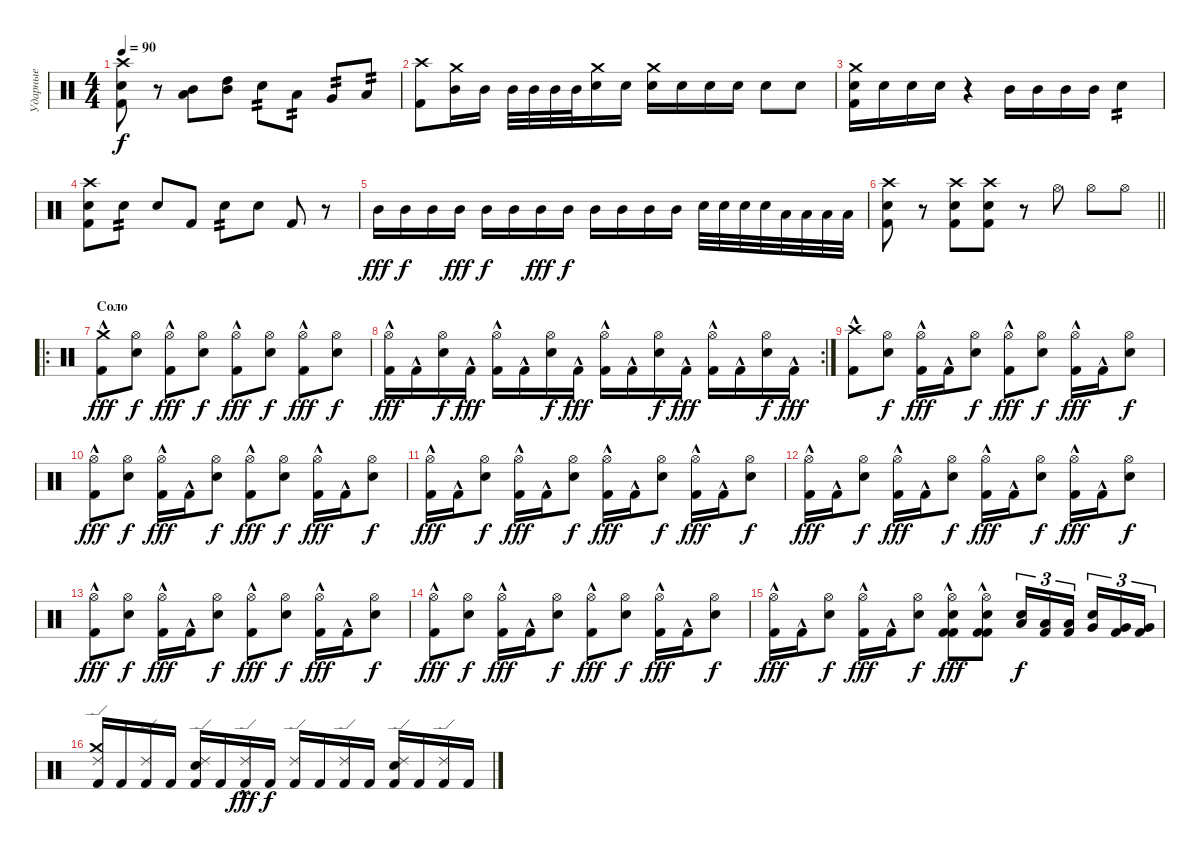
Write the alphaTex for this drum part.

\track ("Ударные" "Ударные") {instrument percussion}
\staff {score}
\articulation defaults
\ts (4 4)
\tempo 90
\clef neutral
\ks c
("Kick (hit) 2" "Snare (hit) 2" "Crash high (hit)").8{dy f} r.8 ("Mid Tom (hit)" "Low Tom (hit)").8 ("High Tom (hit)" "Mid Tom (hit)").8 "Electric Snare (hit)".8{tp 2} "Low Floor Tom (hit)".8{tp 2} "Very Low Tom (hit)".8{tp 2} "Low Tom (hit)".8{tp 2} |
("Crash high (hit)" "Kick (hit) 2").8 ("Crash medium (hit)" "Mid Tom (hit)").16 "Mid Tom (hit)".16 "Mid Tom (hit)".32 "Mid Tom (hit)".32 "Mid Tom (hit)".32 "Mid Tom (hit)".32 ("Crash medium (hit)" "Snare (hit) 2").16 "Snare (hit) 2".16 ("Crash medium (hit)" "Snare (hit) 2").16 "Snare (hit) 2".16 "Snare (hit) 2".16 "Snare (hit) 2".16 "Snare (hit) 2".8 "Snare (hit) 2".8 |
("Crash medium (hit)" "Snare (hit) 2" "Kick (hit) 2").16 "Snare (hit) 2".16 "Snare (hit) 2".16 "Snare (hit) 2".16 r.4 "Mid Tom (hit)".16 "Mid Tom (hit)".16 "Mid Tom (hit)".16 "Mid Tom (hit)".16 "Electric Snare (hit)".4{tp 2} |
("Kick (hit) 2" "Snare (hit) 2" "Crash high (hit)").8 "Electric Snare (hit)".8{tp 2} "Electric Snare (hit)".8 "Kick (hit) 2".8 "Electric Snare (hit)".8{tp 2} "Electric Snare (hit)".8 "Kick (hit) 2".8 r.8 |
"Mid Tom (hit)".16{dy fff} "Mid Tom (hit)".16{dy f} "Mid Tom (hit)".16 "Mid Tom (hit)".16{dy fff} "Mid Tom (hit)".16{dy f} "Mid Tom (hit)".16 "Mid Tom (hit)".16{dy fff} "Mid Tom (hit)".16{dy f} "Mid Tom (hit)".16 "Mid Tom (hit)".16 "Mid Tom (hit)".16 "Mid Tom (hit)".16 "Snare (hit) 2".32 "Snare (hit) 2".32 "Snare (hit) 2".32 "Snare (hit) 2".32 "Low Tom (hit)".32 "Low Tom (hit)".32 "Low Tom (hit)".32 "Low Tom (hit)".32 |
\barLineRight lightlight
("Kick (hit) 2" "Snare (hit) 2" "Crash high (hit)").8 r.8 ("Kick (hit) 2" "Snare (hit) 2" "Crash high (hit)").8 ("Kick (hit) 2" "Snare (hit) 2" "Crash high (hit)").8 r.8 "Hi-Hat (open)".8 "Hi-Hat (open)".8 "Hi-Hat (open)".8 |
\ro
\section ("" "Соло")
("Crash medium (hit)" "Kick (hit) 2"{hac}).8{dy fff} ("Hi-Hat (open)" "Snare (hit) 2").8{dy f} ("Hi-Hat (open)" "Kick (hit) 2"{hac}).8{dy fff} ("Hi-Hat (open)" "Snare (hit) 2").8{dy f} ("Hi-Hat (open)" "Kick (hit) 2"{hac}).8{dy fff} ("Hi-Hat (open)" "Snare (hit) 2").8{dy f} ("Hi-Hat (open)" "Kick (hit) 2"{hac}).8{dy fff} ("Hi-Hat (open)" "Snare (hit) 2").8{dy f} |
\rc 2
("Hi-Hat (open)" "Kick (hit) 2"{hac}).16{dy fff} "Kick (hit) 2"{hac}.16 ("Hi-Hat (open)" "Snare (hit) 2").16{dy f} "Kick (hit) 2"{hac}.16{dy fff} ("Hi-Hat (open)" "Kick (hit) 2"{hac}).16 "Kick (hit) 2"{hac}.16 ("Hi-Hat (open)" "Snare (hit) 2").16{dy f} "Kick (hit) 2"{hac}.16{dy fff} ("Hi-Hat (open)" "Kick (hit) 2"{hac}).16 "Kick (hit) 2"{hac}.16 ("Hi-Hat (open)" "Snare (hit) 2").16{dy f} "Kick (hit) 2"{hac}.16{dy fff} ("Hi-Hat (open)" "Kick (hit) 2"{hac}).16 "Kick (hit) 2"{hac}.16 ("Hi-Hat (open)" "Snare (hit) 2").16{dy f} "Kick (hit) 2"{hac}.16{dy fff} |
("Crash high (hit)" "Kick (hit) 2"{hac}).8 ("Hi-Hat (open)" "Snare (hit) 2").8{dy f} ("Hi-Hat (open)" "Kick (hit) 2"{hac}).16{dy fff} "Kick (hit) 2"{hac}.16 ("Hi-Hat (open)" "Snare (hit) 2").8{dy f} ("Hi-Hat (open)" "Kick (hit) 2"{hac}).8{dy fff} ("Hi-Hat (open)" "Snare (hit) 2").8{dy f} ("Hi-Hat (open)" "Kick (hit) 2"{hac}).16{dy fff} "Kick (hit) 2"{hac}.16 ("Hi-Hat (open)" "Snare (hit) 2").8{dy f} |
("Hi-Hat (open)" "Kick (hit) 2"{hac}).8{dy fff} ("Hi-Hat (open)" "Snare (hit) 2").8{dy f} ("Hi-Hat (open)" "Kick (hit) 2"{hac}).16{dy fff} "Kick (hit) 2"{hac}.16 ("Hi-Hat (open)" "Snare (hit) 2").8{dy f} ("Hi-Hat (open)" "Kick (hit) 2"{hac}).8{dy fff} ("Hi-Hat (open)" "Snare (hit) 2").8{dy f} ("Hi-Hat (open)" "Kick (hit) 2"{hac}).16{dy fff} "Kick (hit) 2"{hac}.16 ("Hi-Hat (open)" "Snare (hit) 2").8{dy f} |
("Hi-Hat (open)" "Kick (hit) 2"{hac}).16{dy fff} "Kick (hit) 2"{hac}.16 ("Hi-Hat (open)" "Snare (hit) 2").8{dy f} ("Hi-Hat (open)" "Kick (hit) 2"{hac}).16{dy fff} "Kick (hit) 2"{hac}.16 ("Hi-Hat (open)" "Snare (hit) 2").8{dy f} ("Hi-Hat (open)" "Kick (hit) 2"{hac}).16{dy fff} "Kick (hit) 2"{hac}.16 ("Hi-Hat (open)" "Snare (hit) 2").8{dy f} ("Hi-Hat (open)" "Kick (hit) 2"{hac}).16{dy fff} "Kick (hit) 2"{hac}.16 ("Hi-Hat (open)" "Snare (hit) 2").8{dy f} |
("Hi-Hat (open)" "Kick (hit) 2"{hac}).16{dy fff} "Kick (hit) 2"{hac}.16 ("Hi-Hat (open)" "Snare (hit) 2").8{dy f} ("Hi-Hat (open)" "Kick (hit) 2"{hac}).16{dy fff} "Kick (hit) 2"{hac}.16 ("Hi-Hat (open)" "Snare (hit) 2").8{dy f} ("Hi-Hat (open)" "Kick (hit) 2"{hac}).16{dy fff} "Kick (hit) 2"{hac}.16 ("Hi-Hat (open)" "Snare (hit) 2").8{dy f} ("Hi-Hat (open)" "Kick (hit) 2"{hac}).16{dy fff} "Kick (hit) 2"{hac}.16 ("Hi-Hat (open)" "Snare (hit) 2").8{dy f} |
("Hi-Hat (open)" "Kick (hit) 2"{hac}).8{dy fff} ("Hi-Hat (open)" "Snare (hit) 2").8{dy f} ("Hi-Hat (open)" "Kick (hit) 2"{hac}).16{dy fff} "Kick (hit) 2"{hac}.16 ("Hi-Hat (open)" "Snare (hit) 2").8{dy f} ("Hi-Hat (open)" "Kick (hit) 2"{hac}).8{dy fff} ("Hi-Hat (open)" "Snare (hit) 2").8{dy f} ("Hi-Hat (open)" "Kick (hit) 2"{hac}).16{dy fff} "Kick (hit) 2"{hac}.16 ("Hi-Hat (open)" "Snare (hit) 2").8{dy f} |
("Hi-Hat (open)" "Kick (hit) 2"{hac}).8{dy fff} ("Hi-Hat (open)" "Snare (hit) 2").8{dy f} ("Hi-Hat (open)" "Kick (hit) 2"{hac}).16{dy fff} "Kick (hit) 2"{hac}.16 ("Hi-Hat (open)" "Snare (hit) 2").8{dy f} ("Hi-Hat (open)" "Kick (hit) 2"{hac}).8{dy fff} ("Hi-Hat (open)" "Snare (hit) 2").8{dy f} ("Hi-Hat (open)" "Kick (hit) 2"{hac}).16{dy fff} "Kick (hit) 2"{hac}.16 ("Hi-Hat (open)" "Snare (hit) 2").8{dy f} |
("Hi-Hat (open)" "Kick (hit) 2"{hac}).16{dy fff} "Kick (hit) 2"{hac}.16 ("Hi-Hat (open)" "Snare (hit) 2").8{dy f} ("Hi-Hat (open)" "Kick (hit) 2"{hac}).16{dy fff} "Kick (hit) 2"{hac}.16 ("Hi-Hat (open)" "Snare (hit) 2").8{dy f} ("Hi-Hat (open)" "Kick (hit) 2"{hac} "Kick (hit) 2" "Snare (hit) 2").8{dy fff} ("Hi-Hat (open)" "Kick (hit) 2"{hac} "Kick (hit) 2" "Snare (hit) 2").8 ("Low Tom (hit)" "Snare (hit) 2").16{tu (3 2) dy f} ("Low Tom (hit)" "Kick (hit) 2").16{tu (3 2)} ("Low Tom (hit)" "Kick (hit) 2").16{tu (3 2) beam splitsecondary} ("Very Low Tom (hit)" "Snare (hit) 2").16{tu (3 2)} ("Very Low Tom (hit)" "Kick (hit) 2").16{tu (3 2)} ("Very Low Tom (hit)" "Kick (hit) 2").16{tu (3 2)} |
("Ride (edge) 2" "Kick (hit) 2" "Crash medium (hit)").16 "Kick (hit) 2".16 ("Ride (edge) 2" "Kick (hit) 2").16 "Kick (hit) 2".16 ("Ride (edge) 2" "Snare (hit) 2" "Kick (hit) 2").16 "Kick (hit) 2".16 ("Ride (edge) 2" "Kick (hit) 2"{hac}).16{dy fff} "Kick (hit) 2".16{dy f} ("Ride (edge) 2" "Kick (hit) 2").16 "Kick (hit) 2".16 ("Ride (edge) 2" "Kick (hit) 2").16 "Kick (hit) 2".16 ("Ride (edge) 2" "Snare (hit) 2" "Kick (hit) 2").16 "Kick (hit) 2".16 ("Ride (edge) 2" "Kick (hit) 2").16 "Kick (hit) 2".16
